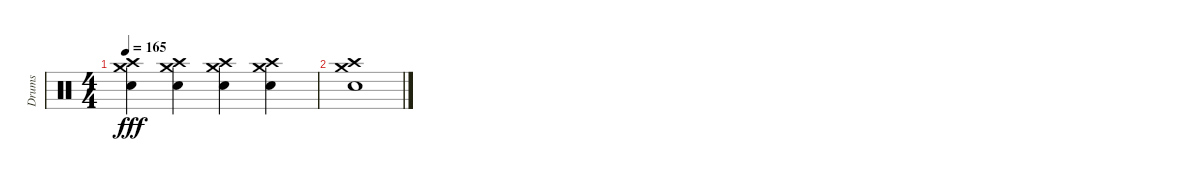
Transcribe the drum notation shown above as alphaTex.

\track ("Drums" "Drums") {instrument percussion}
\staff {score}
\articulation defaults
\ts (4 4)
\tempo 165
\clef neutral
\ks c
("Electric Snare (hit)" "Crash medium (hit)" "Crash high (hit)").4{dy fff} ("Electric Snare (hit)" "Crash medium (hit)" "Crash high (hit)").4 ("Electric Snare (hit)" "Crash medium (hit)" "Crash high (hit)").4 ("Electric Snare (hit)" "Crash medium (hit)" "Crash high (hit)").4 |
("Electric Snare (hit)" "Crash medium (hit)" "Crash high (hit)").1
